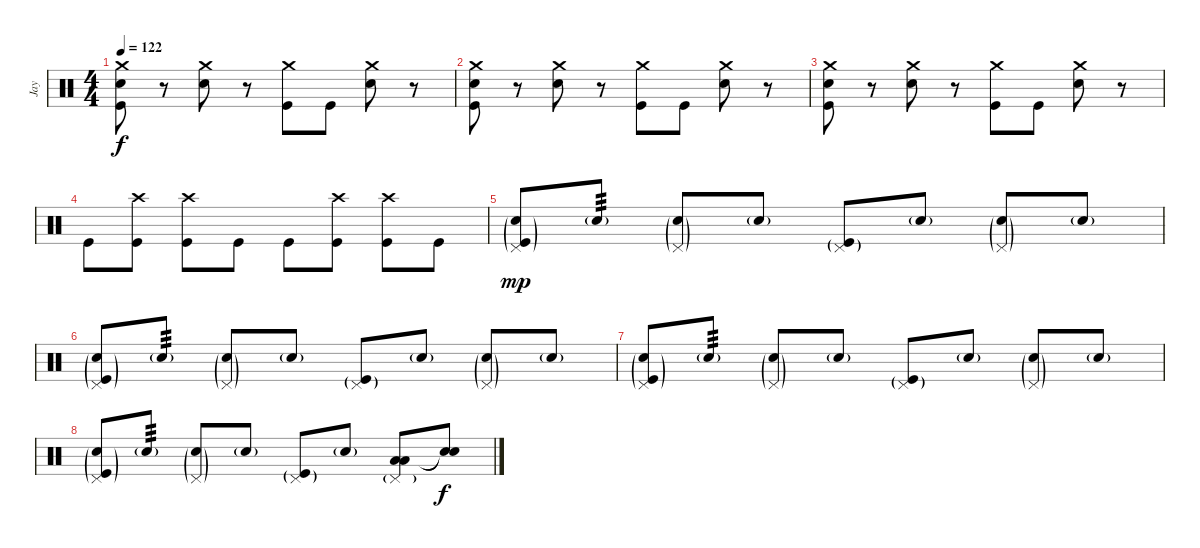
\track ("Jay" "Jay") {instrument percussion}
\staff {score}
\articulation defaults
\ts (4 4)
\tempo 122
\clef neutral
\ks c
("Crash medium (hit)" "Kick (hit)" "Snare (hit)").8{dy f} r.8 ("Crash medium (hit)" "Electric Snare (hit)").8 r.8 ("Crash medium (hit)" "Kick (hit)").8 "Kick (hit)".8 ("Crash medium (hit)" "Electric Snare (hit)").8 r.8 |
("Crash medium (hit)" "Kick (hit)" "Snare (hit)").8 r.8 ("Crash medium (hit)" "Electric Snare (hit)").8 r.8 ("Crash medium (hit)" "Kick (hit)").8 "Kick (hit)".8 ("Crash medium (hit)" "Electric Snare (hit)").8 r.8 |
("Crash medium (hit)" "Kick (hit)" "Snare (hit)").8 r.8 ("Crash medium (hit)" "Electric Snare (hit)").8 r.8 ("Crash medium (hit)" "Kick (hit)").8 "Kick (hit)".8 ("Crash medium (hit)" "Electric Snare (hit)").8 r.8 |
"Kick (hit)".8 ("Crash high (hit)" "Kick (hit)").8 ("Crash high (hit)" "Kick (hit)").8 "Kick (hit)".8 "Kick (hit)".8 ("Crash high (hit)" "Kick (hit)").8 ("Crash high (hit)" "Kick (hit)").8 "Kick (hit)".8 |
("Electric Snare (hit)"{g} "Pedal Hi-Hat (hit)"{g} "Kick (hit)"{g}).8{dy mp} "Electric Snare (hit)"{g}.8{tp 3} ("Electric Snare (hit)"{g} "Pedal Hi-Hat (hit)"{g}).8 "Electric Snare (hit)"{g}.8 ("Pedal Hi-Hat (hit)"{g} "Kick (hit)"{g}).8 "Electric Snare (hit)"{g}.8 ("Electric Snare (hit)"{g} "Pedal Hi-Hat (hit)"{g}).8 "Electric Snare (hit)"{g}.8 |
("Electric Snare (hit)"{g} "Pedal Hi-Hat (hit)"{g} "Kick (hit)"{g}).8 "Electric Snare (hit)"{g}.8{tp 3} ("Electric Snare (hit)"{g} "Pedal Hi-Hat (hit)"{g}).8 "Electric Snare (hit)"{g}.8 ("Pedal Hi-Hat (hit)"{g} "Kick (hit)"{g}).8 "Electric Snare (hit)"{g}.8 ("Electric Snare (hit)"{g} "Pedal Hi-Hat (hit)"{g}).8 "Electric Snare (hit)"{g}.8 |
("Electric Snare (hit)"{g} "Pedal Hi-Hat (hit)"{g} "Kick (hit)"{g}).8 "Electric Snare (hit)"{g}.8{tp 3} ("Electric Snare (hit)"{g} "Pedal Hi-Hat (hit)"{g}).8 "Electric Snare (hit)"{g}.8 ("Pedal Hi-Hat (hit)"{g} "Kick (hit)"{g}).8 "Electric Snare (hit)"{g}.8 ("Electric Snare (hit)"{g} "Pedal Hi-Hat (hit)"{g}).8 "Electric Snare (hit)"{g}.8 |
("Electric Snare (hit)"{g} "Pedal Hi-Hat (hit)"{g} "Kick (hit)"{g}).8 "Electric Snare (hit)"{g}.8{tp 3} ("Electric Snare (hit)"{g} "Pedal Hi-Hat (hit)"{g}).8 "Electric Snare (hit)"{g}.8 ("Pedal Hi-Hat (hit)"{g} "Kick (hit)"{g}).8 "Electric Snare (hit)"{g}.8 ("Low Tom (hit)" "Low Tom (hit)" "Pedal Hi-Hat (hit)"{g}).8 ("Electric Snare (hit)"{t} "Snare (hit)"{t}).8{dy f}
